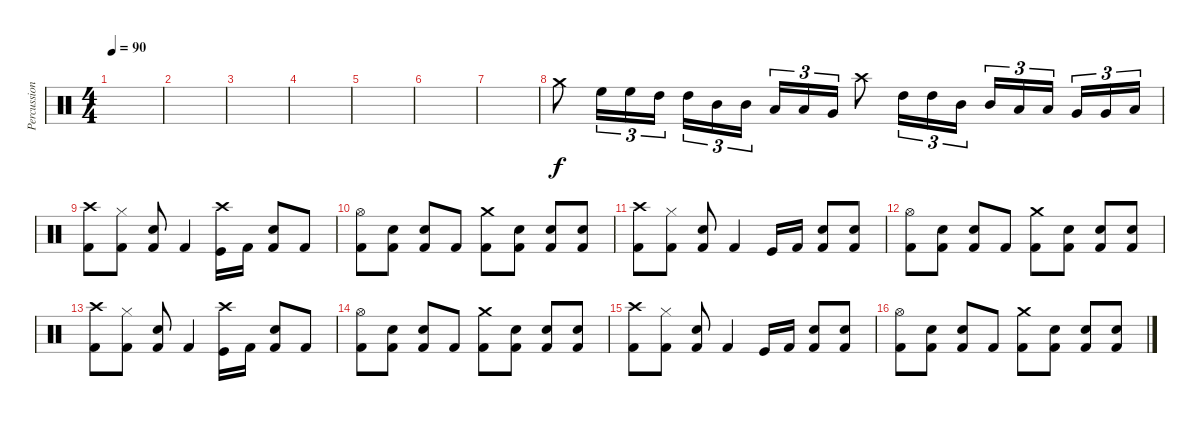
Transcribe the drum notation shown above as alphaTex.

\track ("Percussion" "Percussion") {instrument percussion}
\staff {score}
\articulation defaults
\ts (4 4)
\tempo 90
\clef neutral
\ks c
|
|
|
|
|
|
|
"Crash medium (hit)".8 "High Floor Tom (hit)".16{tu (3 2)} "High Floor Tom (hit)".16{tu (3 2)} "High Tom (hit)".16{tu (3 2)} "High Tom (hit)".16{tu (3 2)} "Mid Tom (hit)".16{tu (3 2)} "Mid Tom (hit)".16{tu (3 2)} "Low Tom (hit)".16{tu (3 2)} "Low Tom (hit)".16{tu (3 2)} "Very Low Tom (hit)".16{tu (3 2)} "Crash high (hit)".8 "High Tom (hit)".16{tu (3 2)} "High Tom (hit)".16{tu (3 2)} "Mid Tom (hit)".16{tu (3 2)} "Mid Tom (hit)".16{tu (3 2)} "Low Tom (hit)".16{tu (3 2)} "Low Tom (hit)".16{tu (3 2)} "Very Low Tom (hit)".16{tu (3 2)} "Very Low Tom (hit)".16{tu (3 2)} "Low Floor Tom (hit)".16{tu (3 2)} |
("Crash high (hit)" "Kick (hit) 2").8 ("Hi-Hat (closed)" "Kick (hit) 2").8 ("Snare (hit) 2" "Kick (hit) 2").8 "Kick (hit) 2".4 ("Crash high (hit)" "Kick (hit)").16 "Kick (hit) 2".16 ("Snare (hit) 2" "Kick (hit) 2").8 "Kick (hit) 2".8 |
("Hi-Hat (open)" "Kick (hit) 2").8 ("Snare (hit) 2" "Kick (hit) 2").8 ("Snare (hit) 2" "Kick (hit) 2").8 "Kick (hit) 2".8 ("Crash medium (hit)" "Kick (hit) 2").8 ("Snare (hit) 2" "Kick (hit) 2").8 ("Snare (hit) 2" "Kick (hit) 2").8 ("Snare (hit) 2" "Kick (hit) 2").8 |
("Crash high (hit)" "Kick (hit) 2").8 ("Hi-Hat (closed)" "Kick (hit) 2").8 ("Snare (hit) 2" "Kick (hit) 2").8 "Kick (hit) 2".4 "Kick (hit)".16 "Kick (hit) 2".16 ("Snare (hit) 2" "Kick (hit) 2").8 ("Snare (hit) 2" "Kick (hit) 2").8 |
("Hi-Hat (open)" "Kick (hit) 2").8 ("Snare (hit) 2" "Kick (hit) 2").8 ("Snare (hit) 2" "Kick (hit) 2").8 "Kick (hit) 2".8 ("Crash medium (hit)" "Kick (hit) 2").8 ("Snare (hit) 2" "Kick (hit) 2").8 ("Snare (hit) 2" "Kick (hit) 2").8 ("Snare (hit) 2" "Kick (hit) 2").8 |
("Crash high (hit)" "Kick (hit) 2").8{volume 7} ("Hi-Hat (closed)" "Kick (hit) 2").8 ("Snare (hit) 2" "Kick (hit) 2").8 "Kick (hit) 2".4 ("Crash high (hit)" "Kick (hit)").16 "Kick (hit) 2".16 ("Snare (hit) 2" "Kick (hit) 2").8 "Kick (hit) 2".8 |
("Hi-Hat (open)" "Kick (hit) 2").8 ("Snare (hit) 2" "Kick (hit) 2").8 ("Snare (hit) 2" "Kick (hit) 2").8 "Kick (hit) 2".8 ("Crash medium (hit)" "Kick (hit) 2").8 ("Snare (hit) 2" "Kick (hit) 2").8 ("Snare (hit) 2" "Kick (hit) 2").8 ("Snare (hit) 2" "Kick (hit) 2").8 |
("Crash high (hit)" "Kick (hit) 2").8{volume 0} ("Hi-Hat (closed)" "Kick (hit) 2").8 ("Snare (hit) 2" "Kick (hit) 2").8 "Kick (hit) 2".4 "Kick (hit)".16 "Kick (hit) 2".16 ("Snare (hit) 2" "Kick (hit) 2").8 ("Snare (hit) 2" "Kick (hit) 2").8 |
("Hi-Hat (open)" "Kick (hit) 2").8 ("Snare (hit) 2" "Kick (hit) 2").8 ("Snare (hit) 2" "Kick (hit) 2").8 "Kick (hit) 2".8 ("Crash medium (hit)" "Kick (hit) 2").8 ("Snare (hit) 2" "Kick (hit) 2").8 ("Snare (hit) 2" "Kick (hit) 2").8 ("Snare (hit) 2" "Kick (hit) 2").8
